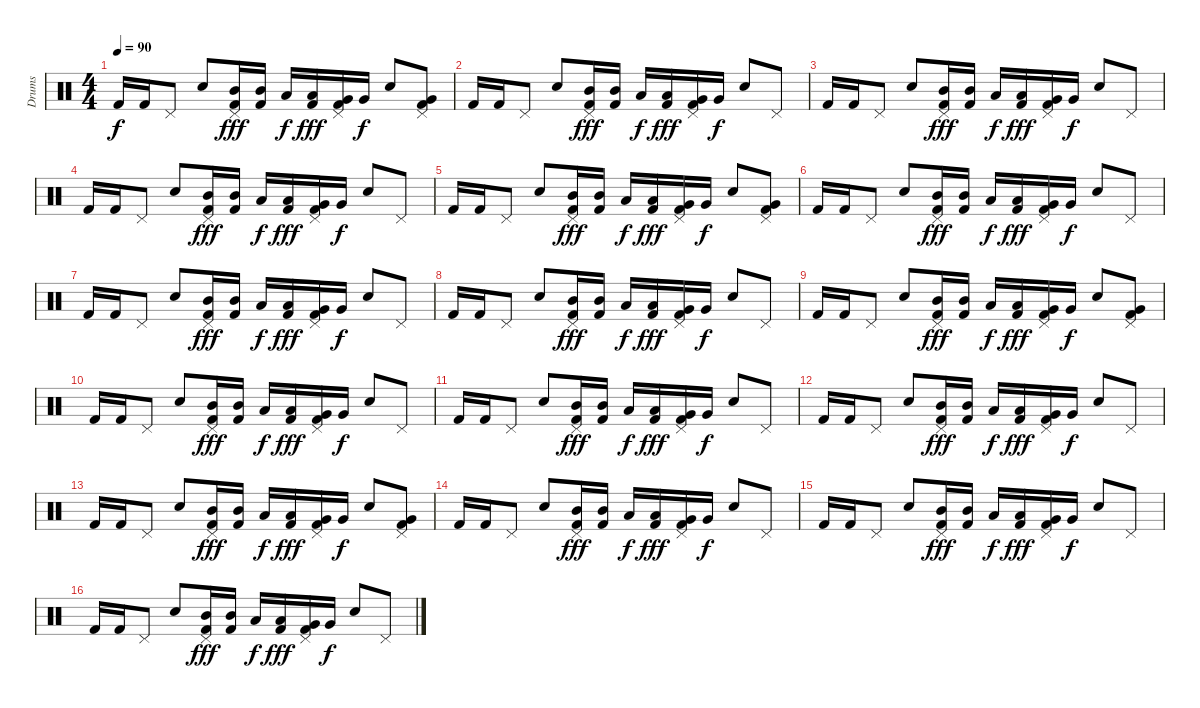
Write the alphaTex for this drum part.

\track ("Drums" "Drums") {instrument percussion}
\staff {score}
\articulation defaults
\ts (4 4)
\tempo 90
\clef neutral
\ks c "Kick (hit) 2".16{dy f} "Kick (hit) 2".16 "Pedal Hi-Hat (hit)".8 "Electric Snare (hit)".8
("Pedal Hi-Hat (hit)" "Mid Tom (hit)" "Kick (hit) 2").16{dy fff} ("Mid Tom (hit)" "Kick (hit) 2").16 "Low Tom (hit)".16{dy f} ("Low Tom (hit)" "Kick (hit) 2").16{dy fff} ("Pedal Hi-Hat (hit)" "Very Low Tom (hit)" "Kick (hit) 2").16 "Very Low Tom (hit)".16{dy f} "Electric Snare (hit)".8 ("Pedal Hi-Hat (hit)" "Very Low Tom (hit)" "Kick (hit) 2").8 |
"Kick (hit) 2".16 "Kick (hit) 2".16 "Pedal Hi-Hat (hit)".8 "Electric Snare (hit)".8 ("Pedal Hi-Hat (hit)" "Mid Tom (hit)" "Kick (hit) 2").16{dy fff} ("Mid Tom (hit)" "Kick (hit) 2").16 "Low Tom (hit)".16{dy f} ("Low Tom (hit)" "Kick (hit) 2").16{dy fff} ("Pedal Hi-Hat (hit)" "Very Low Tom (hit)" "Kick (hit) 2").16 "Very Low Tom (hit)".16{dy f} "Electric Snare (hit)".8 "Pedal Hi-Hat (hit)".8 |
"Kick (hit) 2".16 "Kick (hit) 2".16 "Pedal Hi-Hat (hit)".8 "Electric Snare (hit)".8 ("Pedal Hi-Hat (hit)" "Mid Tom (hit)" "Kick (hit) 2").16{dy fff} ("Mid Tom (hit)" "Kick (hit) 2").16 "Low Tom (hit)".16{dy f} ("Low Tom (hit)" "Kick (hit) 2").16{dy fff} ("Pedal Hi-Hat (hit)" "Very Low Tom (hit)" "Kick (hit) 2").16 "Very Low Tom (hit)".16{dy f} "Electric Snare (hit)".8 "Pedal Hi-Hat (hit)".8 |
"Kick (hit) 2".16 "Kick (hit) 2".16 "Pedal Hi-Hat (hit)".8 "Electric Snare (hit)".8 ("Pedal Hi-Hat (hit)" "Mid Tom (hit)" "Kick (hit) 2").16{dy fff} ("Mid Tom (hit)" "Kick (hit) 2").16 "Low Tom (hit)".16{dy f} ("Low Tom (hit)" "Kick (hit) 2").16{dy fff} ("Pedal Hi-Hat (hit)" "Very Low Tom (hit)" "Kick (hit) 2").16 "Very Low Tom (hit)".16{dy f} "Electric Snare (hit)".8 "Pedal Hi-Hat (hit)".8 |
"Kick (hit) 2".16 "Kick (hit) 2".16 "Pedal Hi-Hat (hit)".8 "Electric Snare (hit)".8 ("Pedal Hi-Hat (hit)" "Mid Tom (hit)" "Kick (hit) 2").16{dy fff} ("Mid Tom (hit)" "Kick (hit) 2").16 "Low Tom (hit)".16{dy f} ("Low Tom (hit)" "Kick (hit) 2").16{dy fff} ("Pedal Hi-Hat (hit)" "Very Low Tom (hit)" "Kick (hit) 2").16 "Very Low Tom (hit)".16{dy f} "Electric Snare (hit)".8 ("Pedal Hi-Hat (hit)" "Very Low Tom (hit)" "Kick (hit) 2").8 |
"Kick (hit) 2".16 "Kick (hit) 2".16 "Pedal Hi-Hat (hit)".8 "Electric Snare (hit)".8 ("Pedal Hi-Hat (hit)" "Mid Tom (hit)" "Kick (hit) 2").16{dy fff} ("Mid Tom (hit)" "Kick (hit) 2").16 "Low Tom (hit)".16{dy f} ("Low Tom (hit)" "Kick (hit) 2").16{dy fff} ("Pedal Hi-Hat (hit)" "Very Low Tom (hit)" "Kick (hit) 2").16 "Very Low Tom (hit)".16{dy f} "Electric Snare (hit)".8 "Pedal Hi-Hat (hit)".8 |
"Kick (hit) 2".16 "Kick (hit) 2".16 "Pedal Hi-Hat (hit)".8 "Electric Snare (hit)".8 ("Pedal Hi-Hat (hit)" "Mid Tom (hit)" "Kick (hit) 2").16{dy fff} ("Mid Tom (hit)" "Kick (hit) 2").16 "Low Tom (hit)".16{dy f} ("Low Tom (hit)" "Kick (hit) 2").16{dy fff} ("Pedal Hi-Hat (hit)" "Very Low Tom (hit)" "Kick (hit) 2").16 "Very Low Tom (hit)".16{dy f} "Electric Snare (hit)".8 "Pedal Hi-Hat (hit)".8 |
"Kick (hit) 2".16 "Kick (hit) 2".16 "Pedal Hi-Hat (hit)".8 "Electric Snare (hit)".8 ("Pedal Hi-Hat (hit)" "Mid Tom (hit)" "Kick (hit) 2").16{dy fff} ("Mid Tom (hit)" "Kick (hit) 2").16 "Low Tom (hit)".16{dy f} ("Low Tom (hit)" "Kick (hit) 2").16{dy fff} ("Pedal Hi-Hat (hit)" "Very Low Tom (hit)" "Kick (hit) 2").16 "Very Low Tom (hit)".16{dy f} "Electric Snare (hit)".8 "Pedal Hi-Hat (hit)".8 |
"Kick (hit) 2".16 "Kick (hit) 2".16 "Pedal Hi-Hat (hit)".8 "Electric Snare (hit)".8 ("Pedal Hi-Hat (hit)" "Mid Tom (hit)" "Kick (hit) 2").16{dy fff} ("Mid Tom (hit)" "Kick (hit) 2").16 "Low Tom (hit)".16{dy f} ("Low Tom (hit)" "Kick (hit) 2").16{dy fff} ("Pedal Hi-Hat (hit)" "Very Low Tom (hit)" "Kick (hit) 2").16 "Very Low Tom (hit)".16{dy f} "Electric Snare (hit)".8 ("Pedal Hi-Hat (hit)" "Very Low Tom (hit)" "Kick (hit) 2").8 |
"Kick (hit) 2".16 "Kick (hit) 2".16 "Pedal Hi-Hat (hit)".8 "Electric Snare (hit)".8 ("Pedal Hi-Hat (hit)" "Mid Tom (hit)" "Kick (hit) 2").16{dy fff} ("Mid Tom (hit)" "Kick (hit) 2").16 "Low Tom (hit)".16{dy f} ("Low Tom (hit)" "Kick (hit) 2").16{dy fff} ("Pedal Hi-Hat (hit)" "Very Low Tom (hit)" "Kick (hit) 2").16 "Very Low Tom (hit)".16{dy f} "Electric Snare (hit)".8 "Pedal Hi-Hat (hit)".8 |
"Kick (hit) 2".16 "Kick (hit) 2".16 "Pedal Hi-Hat (hit)".8 "Electric Snare (hit)".8 ("Pedal Hi-Hat (hit)" "Mid Tom (hit)" "Kick (hit) 2").16{dy fff} ("Mid Tom (hit)" "Kick (hit) 2").16 "Low Tom (hit)".16{dy f} ("Low Tom (hit)" "Kick (hit) 2").16{dy fff} ("Pedal Hi-Hat (hit)" "Very Low Tom (hit)" "Kick (hit) 2").16 "Very Low Tom (hit)".16{dy f} "Electric Snare (hit)".8 "Pedal Hi-Hat (hit)".8 |
"Kick (hit) 2".16 "Kick (hit) 2".16 "Pedal Hi-Hat (hit)".8 "Electric Snare (hit)".8 ("Pedal Hi-Hat (hit)" "Mid Tom (hit)" "Kick (hit) 2").16{dy fff} ("Mid Tom (hit)" "Kick (hit) 2").16 "Low Tom (hit)".16{dy f} ("Low Tom (hit)" "Kick (hit) 2").16{dy fff} ("Pedal Hi-Hat (hit)" "Very Low Tom (hit)" "Kick (hit) 2").16 "Very Low Tom (hit)".16{dy f} "Electric Snare (hit)".8 "Pedal Hi-Hat (hit)".8 |
"Kick (hit) 2".16 "Kick (hit) 2".16 "Pedal Hi-Hat (hit)".8 "Electric Snare (hit)".8 ("Pedal Hi-Hat (hit)" "Mid Tom (hit)" "Kick (hit) 2").16{dy fff} ("Mid Tom (hit)" "Kick (hit) 2").16 "Low Tom (hit)".16{dy f} ("Low Tom (hit)" "Kick (hit) 2").16{dy fff} ("Pedal Hi-Hat (hit)" "Very Low Tom (hit)" "Kick (hit) 2").16 "Very Low Tom (hit)".16{dy f} "Electric Snare (hit)".8 ("Pedal Hi-Hat (hit)" "Very Low Tom (hit)" "Kick (hit) 2").8 |
"Kick (hit) 2".16 "Kick (hit) 2".16 "Pedal Hi-Hat (hit)".8 "Electric Snare (hit)".8 ("Pedal Hi-Hat (hit)" "Mid Tom (hit)" "Kick (hit) 2").16{dy fff} ("Mid Tom (hit)" "Kick (hit) 2").16 "Low Tom (hit)".16{dy f} ("Low Tom (hit)" "Kick (hit) 2").16{dy fff} ("Pedal Hi-Hat (hit)" "Very Low Tom (hit)" "Kick (hit) 2").16 "Very Low Tom (hit)".16{dy f} "Electric Snare (hit)".8 "Pedal Hi-Hat (hit)".8 |
"Kick (hit) 2".16 "Kick (hit) 2".16 "Pedal Hi-Hat (hit)".8 "Electric Snare (hit)".8 ("Pedal Hi-Hat (hit)" "Mid Tom (hit)" "Kick (hit) 2").16{dy fff} ("Mid Tom (hit)" "Kick (hit) 2").16 "Low Tom (hit)".16{dy f} ("Low Tom (hit)" "Kick (hit) 2").16{dy fff} ("Pedal Hi-Hat (hit)" "Very Low Tom (hit)" "Kick (hit) 2").16 "Very Low Tom (hit)".16{dy f} "Electric Snare (hit)".8 "Pedal Hi-Hat (hit)".8 |
"Kick (hit) 2".16 "Kick (hit) 2".16 "Pedal Hi-Hat (hit)".8 "Electric Snare (hit)".8 ("Pedal Hi-Hat (hit)" "Mid Tom (hit)" "Kick (hit) 2").16{dy fff} ("Mid Tom (hit)" "Kick (hit) 2").16 "Low Tom (hit)".16{dy f} ("Low Tom (hit)" "Kick (hit) 2").16{dy fff} ("Pedal Hi-Hat (hit)" "Very Low Tom (hit)" "Kick (hit) 2").16 "Very Low Tom (hit)".16{dy f} "Electric Snare (hit)".8 "Pedal Hi-Hat (hit)".8
